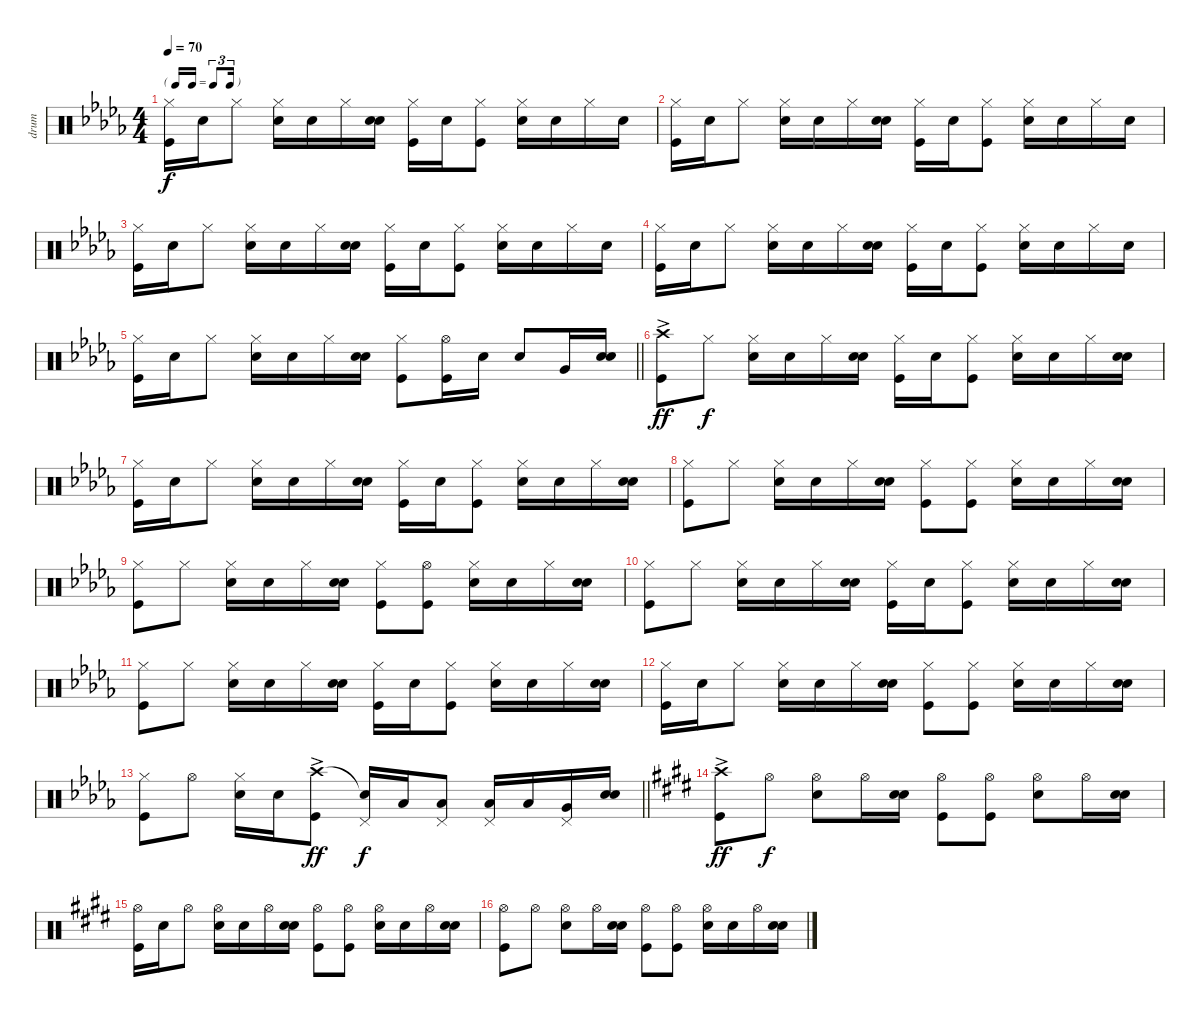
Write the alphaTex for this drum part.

\track ("drum" "drum") {instrument percussion}
\staff {score}
\articulation defaults
\ts (4 4)
\tf triplet16th
\tempo 70
\clef neutral
\ks db
("Hi-Hat (closed)" "Kick (hit)").16{dy f} "Snare (hit) 2".16 "Hi-Hat (closed)".8 ("Hi-Hat (closed)" "Snare (hit) 2").16 "Snare (hit) 2".16 "Hi-Hat (closed)".16 ("Snare (hit) 2" "Snare (hit) 2").16 ("Hi-Hat (closed)" "Kick (hit)").16 "Snare (hit) 2".16 ("Hi-Hat (closed)" "Kick (hit)").8 ("Hi-Hat (closed)" "Snare (hit) 2").16 "Snare (hit) 2".16 "Hi-Hat (closed)".16 "Snare (hit) 2".16 |
("Hi-Hat (closed)" "Kick (hit)").16 "Snare (hit) 2".16 "Hi-Hat (closed)".8 ("Hi-Hat (closed)" "Snare (hit) 2").16 "Snare (hit) 2".16 "Hi-Hat (closed)".16 ("Snare (hit) 2" "Snare (hit) 2").16 ("Hi-Hat (closed)" "Kick (hit)").16 "Snare (hit) 2".16 ("Hi-Hat (closed)" "Kick (hit)").8 ("Hi-Hat (closed)" "Snare (hit) 2").16 "Snare (hit) 2".16 "Hi-Hat (closed)".16 "Snare (hit) 2".16 |
("Hi-Hat (closed)" "Kick (hit)").16 "Snare (hit) 2".16 "Hi-Hat (closed)".8 ("Hi-Hat (closed)" "Snare (hit) 2").16 "Snare (hit) 2".16 "Hi-Hat (closed)".16 ("Snare (hit) 2" "Snare (hit) 2").16 ("Hi-Hat (closed)" "Kick (hit)").16 "Snare (hit) 2".16 ("Hi-Hat (closed)" "Kick (hit)").8 ("Hi-Hat (closed)" "Snare (hit) 2").16 "Snare (hit) 2".16 "Hi-Hat (closed)".16 "Snare (hit) 2".16 |
("Hi-Hat (closed)" "Kick (hit)").16 "Snare (hit) 2".16 "Hi-Hat (closed)".8 ("Hi-Hat (closed)" "Snare (hit) 2").16 "Snare (hit) 2".16 "Hi-Hat (closed)".16 ("Snare (hit) 2" "Snare (hit) 2").16 ("Hi-Hat (closed)" "Kick (hit)").16 "Snare (hit) 2".16 ("Hi-Hat (closed)" "Kick (hit)").8 ("Hi-Hat (closed)" "Snare (hit) 2").16 "Snare (hit) 2".16 "Hi-Hat (closed)".16 "Snare (hit) 2".16 |
\barLineRight lightlight
("Hi-Hat (closed)" "Kick (hit)").16 "Snare (hit) 2".16 "Hi-Hat (closed)".8 ("Hi-Hat (closed)" "Snare (hit) 2").16 "Snare (hit) 2".16 "Hi-Hat (closed)".16 ("Snare (hit) 2" "Snare (hit) 2").16 ("Hi-Hat (closed)" "Kick (hit)").8 ("Hi-Hat (open)" "Kick (hit)").16 "Snare (hit) 2".16 "Snare (hit) 2".8 "Very Low Tom (hit)".16 ("Snare (hit) 2" "Snare (hit) 2").16 |
\section ("" "")
("Crash high (hit)"{ac} "Kick (hit)").8{dy ff} "Hi-Hat (closed)".8{dy f} ("Hi-Hat (closed)" "Snare (hit) 2").16 "Snare (hit) 2".16 "Hi-Hat (closed)".16 ("Snare (hit) 2" "Snare (hit) 2").16 ("Hi-Hat (closed)" "Kick (hit)").16 "Snare (hit) 2".16 ("Hi-Hat (closed)" "Kick (hit)").8 ("Hi-Hat (closed)" "Snare (hit) 2").16 "Snare (hit) 2".16 "Hi-Hat (closed)".16 ("Snare (hit) 2" "Snare (hit) 2").16 |
("Hi-Hat (closed)" "Kick (hit)").16 "Snare (hit) 2".16 "Hi-Hat (closed)".8 ("Hi-Hat (closed)" "Snare (hit) 2").16 "Snare (hit) 2".16 "Hi-Hat (closed)".16 ("Snare (hit) 2" "Snare (hit) 2").16 ("Hi-Hat (closed)" "Kick (hit)").16 "Snare (hit) 2".16 ("Hi-Hat (closed)" "Kick (hit)").8 ("Hi-Hat (closed)" "Snare (hit) 2").16 "Snare (hit) 2".16 "Hi-Hat (closed)".16 ("Snare (hit) 2" "Snare (hit) 2").16 |
("Hi-Hat (closed)" "Kick (hit)").8 "Hi-Hat (closed)".8 ("Hi-Hat (closed)" "Snare (hit) 2").16 "Snare (hit) 2".16 "Hi-Hat (closed)".16 ("Snare (hit) 2" "Snare (hit) 2").16 ("Hi-Hat (closed)" "Kick (hit)").8 ("Hi-Hat (closed)" "Kick (hit)").8 ("Hi-Hat (closed)" "Snare (hit) 2").16 "Snare (hit) 2".16 "Hi-Hat (closed)".16 ("Snare (hit) 2" "Snare (hit) 2").16 |
("Hi-Hat (closed)" "Kick (hit)").8 "Hi-Hat (closed)".8 ("Hi-Hat (closed)" "Snare (hit) 2").16 "Snare (hit) 2".16 "Hi-Hat (closed)".16 ("Snare (hit) 2" "Snare (hit) 2").16 ("Hi-Hat (closed)" "Kick (hit)").8 ("Hi-Hat (open)" "Kick (hit)").8 ("Hi-Hat (closed)" "Snare (hit) 2").16 "Snare (hit) 2".16 "Hi-Hat (closed)".16 ("Snare (hit) 2" "Snare (hit) 2").16 |
("Hi-Hat (closed)" "Kick (hit)").8 "Hi-Hat (closed)".8 ("Hi-Hat (closed)" "Snare (hit) 2").16 "Snare (hit) 2".16 "Hi-Hat (closed)".16 ("Snare (hit) 2" "Snare (hit) 2").16 ("Hi-Hat (closed)" "Kick (hit)").16 "Snare (hit) 2".16 ("Hi-Hat (closed)" "Kick (hit)").8 ("Hi-Hat (closed)" "Snare (hit) 2").16 "Snare (hit) 2".16 "Hi-Hat (closed)".16 ("Snare (hit) 2" "Snare (hit) 2").16 |
("Hi-Hat (closed)" "Kick (hit)").8 "Hi-Hat (closed)".8 ("Hi-Hat (closed)" "Snare (hit) 2").16 "Snare (hit) 2".16 "Hi-Hat (closed)".16 ("Snare (hit) 2" "Snare (hit) 2").16 ("Hi-Hat (closed)" "Kick (hit)").16 "Snare (hit) 2".16 ("Hi-Hat (closed)" "Kick (hit)").8 ("Hi-Hat (closed)" "Snare (hit) 2").16 "Snare (hit) 2".16 "Hi-Hat (closed)".16 ("Snare (hit) 2" "Snare (hit) 2").16 |
("Hi-Hat (closed)" "Kick (hit)").16 "Snare (hit) 2".16 "Hi-Hat (closed)".8 ("Hi-Hat (closed)" "Snare (hit) 2").16 "Snare (hit) 2".16 "Hi-Hat (closed)".16 ("Snare (hit) 2" "Snare (hit) 2").16 ("Hi-Hat (closed)" "Kick (hit)").8 ("Hi-Hat (closed)" "Kick (hit)").8 ("Hi-Hat (closed)" "Snare (hit) 2").16 "Snare (hit) 2".16 "Hi-Hat (closed)".16 ("Snare (hit) 2" "Snare (hit) 2").16 |
\barLineRight lightlight
("Hi-Hat (closed)" "Kick (hit)").8 "Hi-Hat (open)".8 ("Hi-Hat (closed)" "Snare (hit) 2").16 "Snare (hit) 2".16 ("Crash high (hit)"{ac} "Kick (hit)").8{dy ff} ("Snare (hit)"{t} "Pedal Hi-Hat (hit)").16{dy f} "Low Tom (hit)".16 ("Low Tom (hit)" "Pedal Hi-Hat (hit)").8 ("Low Tom (hit)" "Pedal Hi-Hat (hit)").16 "Low Tom (hit)".16 ("Very Low Tom (hit)" "Pedal Hi-Hat (hit)").16 ("Snare (hit) 2" "Snare (hit) 2").16 |
\section ("" "")
\ks e
("Crash high (hit)"{ac} "Kick (hit)").8{dy ff} "Hi-Hat (open)".8{dy f} ("Hi-Hat (open)" "Snare (hit) 2").8 "Hi-Hat (open)".16 ("Snare (hit) 2" "Snare (hit) 2").16 ("Hi-Hat (open)" "Kick (hit)").8 ("Hi-Hat (open)" "Kick (hit)").8 ("Hi-Hat (open)" "Snare (hit) 2").8 "Hi-Hat (open)".16 ("Snare (hit) 2" "Snare (hit) 2").16 |
("Hi-Hat (open)" "Kick (hit)").16 "Snare (hit) 2".16 "Hi-Hat (open)".8 ("Hi-Hat (open)" "Snare (hit) 2").16 "Snare (hit) 2".16 "Hi-Hat (open)".16 ("Snare (hit) 2" "Snare (hit) 2").16 ("Hi-Hat (open)" "Kick (hit)").8 ("Hi-Hat (open)" "Kick (hit)").8 ("Hi-Hat (open)" "Snare (hit) 2").16 "Snare (hit) 2".16 "Hi-Hat (open)".16 ("Snare (hit) 2" "Snare (hit) 2").16 |
("Hi-Hat (open)" "Kick (hit)").8 "Hi-Hat (open)".8 ("Hi-Hat (open)" "Snare (hit) 2").8 "Hi-Hat (open)".16 ("Snare (hit) 2" "Snare (hit) 2").16 ("Hi-Hat (open)" "Kick (hit)").8 ("Hi-Hat (open)" "Kick (hit)").8 ("Hi-Hat (open)" "Snare (hit) 2").16 "Snare (hit) 2".16 "Hi-Hat (open)".16 ("Snare (hit) 2" "Snare (hit) 2").16
